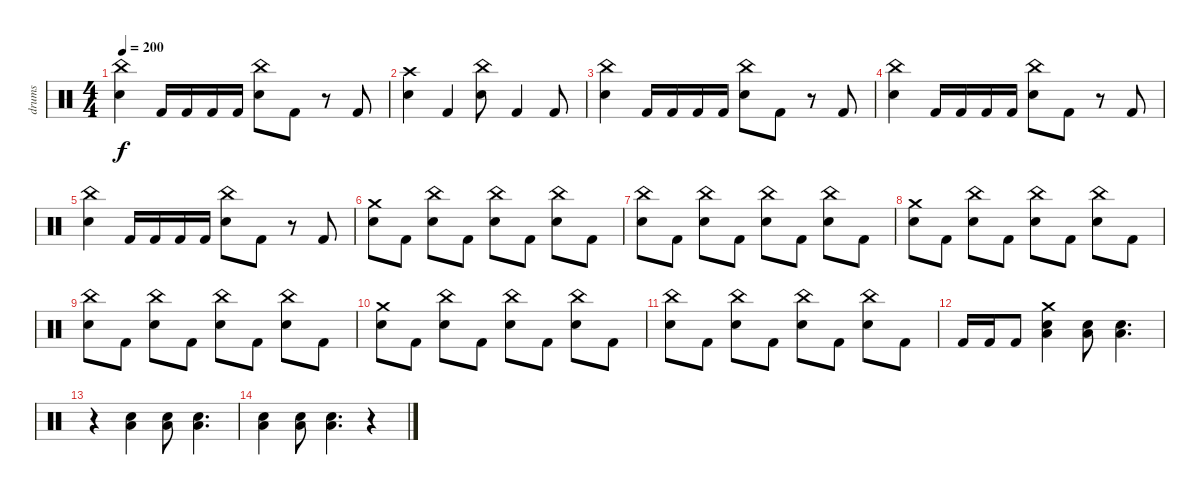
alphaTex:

\track ("drums" "drums") {instrument percussion}
\staff {score}
\articulation defaults
\ts (4 4)
\tempo 200
\clef neutral
\ks c
("China (hit)" "Electric Snare (hit)").4{dy f} "Kick (hit) 2".16 "Kick (hit) 2".16 "Kick (hit) 2".16 "Kick (hit) 2".16 ("China (hit)" "Electric Snare (hit)").8 "Kick (hit) 2".8 r.8 "Kick (hit) 2".8 |
("Crash high (hit)" "Electric Snare (hit)").4 "Kick (hit) 2".4 ("China (hit)" "Electric Snare (hit)").8 "Kick (hit) 2".4 "Kick (hit) 2".8 |
("China (hit)" "Electric Snare (hit)").4 "Kick (hit) 2".16 "Kick (hit) 2".16 "Kick (hit) 2".16 "Kick (hit) 2".16 ("China (hit)" "Electric Snare (hit)").8 "Kick (hit) 2".8 r.8 "Kick (hit) 2".8 |
("China (hit)" "Electric Snare (hit)").4 "Kick (hit) 2".16 "Kick (hit) 2".16 "Kick (hit) 2".16 "Kick (hit) 2".16 ("China (hit)" "Electric Snare (hit)").8 "Kick (hit) 2".8 r.8 "Kick (hit) 2".8 |
("China (hit)" "Electric Snare (hit)").4 "Kick (hit) 2".16 "Kick (hit) 2".16 "Kick (hit) 2".16 "Kick (hit) 2".16 ("China (hit)" "Electric Snare (hit)").8 "Kick (hit) 2".8 r.8 "Kick (hit) 2".8 |
("Crash medium (hit)" "Electric Snare (hit)").8 "Kick (hit) 2".8 ("China (hit)" "Electric Snare (hit)").8 "Kick (hit) 2".8 ("China (hit)" "Electric Snare (hit)").8 "Kick (hit) 2".8 ("China (hit)" "Electric Snare (hit)").8 "Kick (hit) 2".8 |
("China (hit)" "Electric Snare (hit)").8 "Kick (hit) 2".8 ("China (hit)" "Electric Snare (hit)").8 "Kick (hit) 2".8 ("China (hit)" "Electric Snare (hit)").8 "Kick (hit) 2".8 ("China (hit)" "Electric Snare (hit)").8 "Kick (hit) 2".8 |
("Crash medium (hit)" "Electric Snare (hit)").8 "Kick (hit) 2".8 ("China (hit)" "Electric Snare (hit)").8 "Kick (hit) 2".8 ("China (hit)" "Electric Snare (hit)").8 "Kick (hit) 2".8 ("China (hit)" "Electric Snare (hit)").8 "Kick (hit) 2".8 |
("China (hit)" "Electric Snare (hit)").8 "Kick (hit) 2".8 ("China (hit)" "Electric Snare (hit)").8 "Kick (hit) 2".8 ("China (hit)" "Electric Snare (hit)").8 "Kick (hit) 2".8 ("China (hit)" "Electric Snare (hit)").8 "Kick (hit) 2".8 |
("Crash medium (hit)" "Electric Snare (hit)").8 "Kick (hit) 2".8 ("China (hit)" "Electric Snare (hit)").8 "Kick (hit) 2".8 ("China (hit)" "Electric Snare (hit)").8 "Kick (hit) 2".8 ("China (hit)" "Electric Snare (hit)").8 "Kick (hit) 2".8 |
("China (hit)" "Electric Snare (hit)").8 "Kick (hit) 2".8 ("China (hit)" "Electric Snare (hit)").8 "Kick (hit) 2".8 ("China (hit)" "Electric Snare (hit)").8 "Kick (hit) 2".8 ("China (hit)" "Electric Snare (hit)").8 "Kick (hit) 2".8 |
"Kick (hit) 2".16 "Kick (hit) 2".16 "Kick (hit) 2".8 ("Crash medium (hit)" "Electric Snare (hit)" "Low Tom (hit)").4 ("Electric Snare (hit)" "Low Tom (hit)").8 ("Electric Snare (hit)" "Low Tom (hit)").4{d} |
r.4 ("Electric Snare (hit)" "Low Tom (hit)").4 ("Electric Snare (hit)" "Low Tom (hit)").8 ("Electric Snare (hit)" "Low Tom (hit)").4{d} |
("Electric Snare (hit)" "Low Tom (hit)").4 ("Electric Snare (hit)" "Low Tom (hit)").8 ("Electric Snare (hit)" "Low Tom (hit)").4{d} r.4
